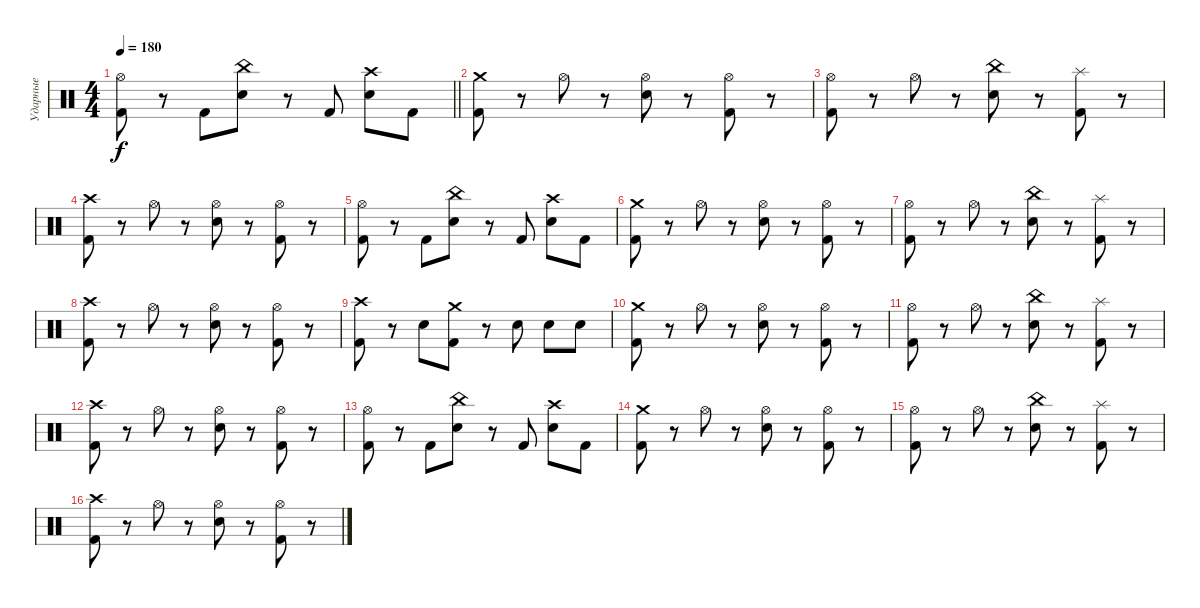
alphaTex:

\track ("Ударные" "Ударные") {instrument percussion}
\staff {score}
\articulation defaults
\ts (4 4)
\tempo 180
\clef neutral
\barLineRight lightlight
\ks c
("Kick (hit) 2" "Hi-Hat (open)").8{dy f} r.8 "Kick (hit) 2".8 ("Electric Snare (hit)" "China (hit)").8 r.8 "Kick (hit) 2".8 ("Electric Snare (hit)" "Crash high (hit)").8 "Kick (hit) 2".8 |
("Kick (hit) 2" "Crash medium (hit)").8 r.8 "Hi-Hat (open)".8 r.8 ("Electric Snare (hit)" "Hi-Hat (open)").8 r.8 ("Kick (hit) 2" "Hi-Hat (open)").8 r.8 |
("Kick (hit) 2" "Hi-Hat (open)").8 r.8 "Hi-Hat (open)".8 r.8 ("Electric Snare (hit)" "China (hit)").8 r.8 ("Kick (hit) 2" "Splash (hit)").8 r.8 |
("Kick (hit) 2" "Crash high (hit)").8 r.8 "Hi-Hat (open)".8 r.8 ("Electric Snare (hit)" "Hi-Hat (open)").8 r.8 ("Kick (hit) 2" "Hi-Hat (open)").8 r.8 |
("Kick (hit) 2" "Hi-Hat (open)").8 r.8 "Kick (hit) 2".8 ("Electric Snare (hit)" "China (hit)").8 r.8 "Kick (hit) 2".8 ("Electric Snare (hit)" "Crash high (hit)").8 "Kick (hit) 2".8 |
("Kick (hit) 2" "Crash medium (hit)").8 r.8 "Hi-Hat (open)".8 r.8 ("Electric Snare (hit)" "Hi-Hat (open)").8 r.8 ("Kick (hit) 2" "Hi-Hat (open)").8 r.8 |
("Kick (hit) 2" "Hi-Hat (open)").8 r.8 "Hi-Hat (open)".8 r.8 ("Electric Snare (hit)" "China (hit)").8 r.8 ("Kick (hit) 2" "Splash (hit)").8 r.8 |
("Kick (hit) 2" "Crash high (hit)").8 r.8 "Hi-Hat (open)".8 r.8 ("Electric Snare (hit)" "Hi-Hat (open)").8 r.8 ("Kick (hit) 2" "Hi-Hat (open)").8 r.8 |
("Kick (hit) 2" "Crash high (hit)").8 r.8 "Electric Snare (hit)".8 ("Kick (hit) 2" "Crash medium (hit)").8 r.8 "Electric Snare (hit)".8 "Electric Snare (hit)".8 "Electric Snare (hit)".8 |
("Kick (hit) 2" "Crash medium (hit)").8 r.8 "Hi-Hat (open)".8 r.8 ("Electric Snare (hit)" "Hi-Hat (open)").8 r.8 ("Kick (hit) 2" "Hi-Hat (open)").8 r.8 |
("Kick (hit) 2" "Hi-Hat (open)").8 r.8 "Hi-Hat (open)".8 r.8 ("Electric Snare (hit)" "China (hit)").8 r.8 ("Kick (hit) 2" "Splash (hit)").8 r.8 |
("Kick (hit) 2" "Crash high (hit)").8 r.8 "Hi-Hat (open)".8 r.8 ("Electric Snare (hit)" "Hi-Hat (open)").8 r.8 ("Kick (hit) 2" "Hi-Hat (open)").8 r.8 |
("Kick (hit) 2" "Hi-Hat (open)").8 r.8 "Kick (hit) 2".8 ("Electric Snare (hit)" "China (hit)").8 r.8 "Kick (hit) 2".8 ("Electric Snare (hit)" "Crash high (hit)").8 "Kick (hit) 2".8 |
("Kick (hit) 2" "Crash medium (hit)").8 r.8 "Hi-Hat (open)".8 r.8 ("Electric Snare (hit)" "Hi-Hat (open)").8 r.8 ("Kick (hit) 2" "Hi-Hat (open)").8 r.8 |
("Kick (hit) 2" "Hi-Hat (open)").8 r.8 "Hi-Hat (open)".8 r.8 ("Electric Snare (hit)" "China (hit)").8 r.8 ("Kick (hit) 2" "Splash (hit)").8 r.8 |
("Kick (hit) 2" "Crash high (hit)").8 r.8 "Hi-Hat (open)".8 r.8 ("Electric Snare (hit)" "Hi-Hat (open)").8 r.8 ("Kick (hit) 2" "Hi-Hat (open)").8 r.8
